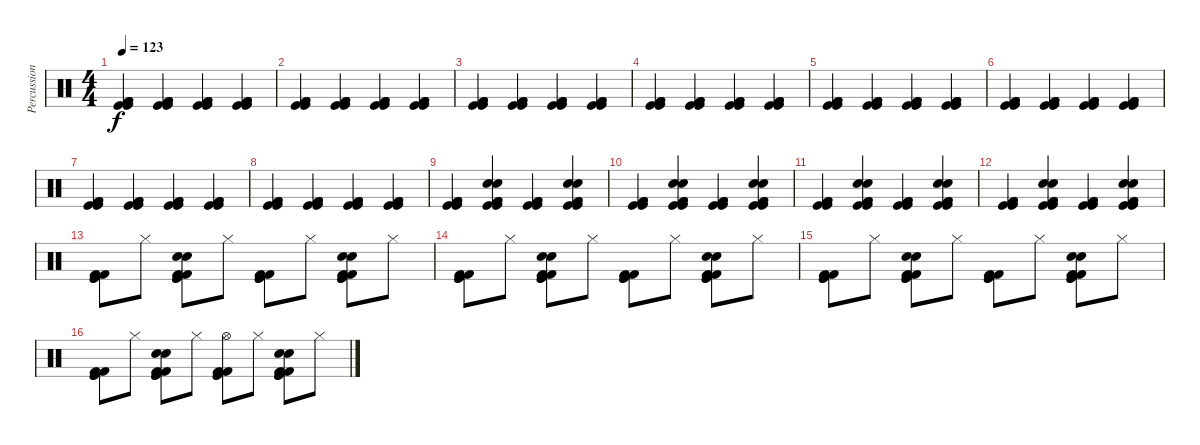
\track ("Percussion" "Percussion") {instrument percussion}
\staff {score}
\articulation defaults
\ts (4 4)
\tempo 123
\clef neutral
\ks c
("Kick (hit)" "Kick (hit)" "Kick (hit) 2" "Kick (hit) 2").4{dy f} ("Kick (hit)" "Kick (hit)" "Kick (hit) 2" "Kick (hit) 2").4 ("Kick (hit)" "Kick (hit)" "Kick (hit) 2" "Kick (hit) 2").4 ("Kick (hit)" "Kick (hit)" "Kick (hit) 2" "Kick (hit) 2").4 |
("Kick (hit)" "Kick (hit)" "Kick (hit) 2" "Kick (hit) 2").4 ("Kick (hit)" "Kick (hit)" "Kick (hit) 2" "Kick (hit) 2").4 ("Kick (hit)" "Kick (hit)" "Kick (hit) 2" "Kick (hit) 2").4 ("Kick (hit)" "Kick (hit)" "Kick (hit) 2" "Kick (hit) 2").4 |
("Kick (hit)" "Kick (hit)" "Kick (hit) 2" "Kick (hit) 2").4 ("Kick (hit)" "Kick (hit)" "Kick (hit) 2" "Kick (hit) 2").4 ("Kick (hit)" "Kick (hit)" "Kick (hit) 2" "Kick (hit) 2").4 ("Kick (hit)" "Kick (hit)" "Kick (hit) 2" "Kick (hit) 2").4 |
("Kick (hit)" "Kick (hit)" "Kick (hit) 2" "Kick (hit) 2").4 ("Kick (hit)" "Kick (hit)" "Kick (hit) 2" "Kick (hit) 2").4 ("Kick (hit)" "Kick (hit)" "Kick (hit) 2" "Kick (hit) 2").4 ("Kick (hit)" "Kick (hit)" "Kick (hit) 2" "Kick (hit) 2").4 |
("Kick (hit)" "Kick (hit)" "Kick (hit) 2" "Kick (hit) 2").4 ("Kick (hit)" "Kick (hit)" "Kick (hit) 2" "Kick (hit) 2").4 ("Kick (hit)" "Kick (hit)" "Kick (hit) 2" "Kick (hit) 2").4 ("Kick (hit)" "Kick (hit)" "Kick (hit) 2" "Kick (hit) 2").4 |
("Kick (hit)" "Kick (hit)" "Kick (hit) 2" "Kick (hit) 2").4 ("Kick (hit)" "Kick (hit)" "Kick (hit) 2" "Kick (hit) 2").4 ("Kick (hit)" "Kick (hit)" "Kick (hit) 2" "Kick (hit) 2").4 ("Kick (hit)" "Kick (hit)" "Kick (hit) 2" "Kick (hit) 2").4 |
("Kick (hit)" "Kick (hit)" "Kick (hit) 2" "Kick (hit) 2").4 ("Kick (hit)" "Kick (hit)" "Kick (hit) 2" "Kick (hit) 2").4 ("Kick (hit)" "Kick (hit)" "Kick (hit) 2" "Kick (hit) 2").4 ("Kick (hit)" "Kick (hit)" "Kick (hit) 2" "Kick (hit) 2").4 |
("Kick (hit)" "Kick (hit)" "Kick (hit) 2" "Kick (hit) 2").4 ("Kick (hit)" "Kick (hit)" "Kick (hit) 2" "Kick (hit) 2").4 ("Kick (hit)" "Kick (hit)" "Kick (hit) 2" "Kick (hit) 2").4 ("Kick (hit)" "Kick (hit)" "Kick (hit) 2" "Kick (hit) 2").4 |
("Kick (hit)" "Kick (hit)" "Kick (hit) 2" "Kick (hit) 2").4 ("Kick (hit)" "Kick (hit)" "Snare (hit) 2" "Snare (hit) 2" "Kick (hit) 2" "Kick (hit) 2").4 ("Kick (hit)" "Kick (hit)" "Kick (hit) 2" "Kick (hit) 2").4 ("Kick (hit)" "Kick (hit)" "Snare (hit) 2" "Snare (hit) 2" "Kick (hit) 2" "Kick (hit) 2").4 |
("Kick (hit)" "Kick (hit)" "Kick (hit) 2" "Kick (hit) 2").4 ("Kick (hit)" "Kick (hit)" "Snare (hit) 2" "Snare (hit) 2" "Kick (hit) 2" "Kick (hit) 2").4 ("Kick (hit)" "Kick (hit)" "Kick (hit) 2" "Kick (hit) 2").4 ("Kick (hit)" "Kick (hit)" "Snare (hit) 2" "Snare (hit) 2" "Kick (hit) 2" "Kick (hit) 2").4 |
("Kick (hit)" "Kick (hit)" "Kick (hit) 2" "Kick (hit) 2").4 ("Kick (hit)" "Kick (hit)" "Snare (hit) 2" "Snare (hit) 2" "Kick (hit) 2" "Kick (hit) 2").4 ("Kick (hit)" "Kick (hit)" "Kick (hit) 2" "Kick (hit) 2").4 ("Kick (hit)" "Kick (hit)" "Kick (hit) 2" "Snare (hit) 2" "Snare (hit) 2" "Kick (hit) 2").4 |
("Kick (hit)" "Kick (hit)" "Kick (hit) 2" "Kick (hit) 2").4 ("Kick (hit)" "Kick (hit)" "Snare (hit) 2" "Snare (hit) 2" "Kick (hit) 2" "Kick (hit) 2").4 ("Kick (hit)" "Kick (hit)" "Kick (hit) 2" "Kick (hit) 2").4 ("Kick (hit)" "Kick (hit)" "Snare (hit) 2" "Snare (hit) 2" "Kick (hit) 2" "Kick (hit) 2").4 |
("Kick (hit)" "Kick (hit)" "Kick (hit) 2" "Kick (hit) 2").8 "Hi-Hat (closed)".8 ("Kick (hit)" "Kick (hit)" "Snare (hit) 2" "Snare (hit) 2" "Kick (hit) 2" "Kick (hit) 2").8 "Hi-Hat (closed)".8 ("Kick (hit)" "Kick (hit)" "Kick (hit) 2" "Kick (hit) 2").8 "Hi-Hat (closed)".8 ("Kick (hit)" "Kick (hit)" "Snare (hit) 2" "Snare (hit) 2" "Kick (hit) 2" "Kick (hit) 2").8 "Hi-Hat (closed)".8 |
("Kick (hit)" "Kick (hit)" "Kick (hit) 2" "Kick (hit) 2").8 "Hi-Hat (closed)".8 ("Kick (hit)" "Kick (hit)" "Snare (hit) 2" "Snare (hit) 2" "Kick (hit) 2" "Kick (hit) 2").8 "Hi-Hat (closed)".8 ("Kick (hit)" "Kick (hit)" "Kick (hit) 2" "Kick (hit) 2").8 "Hi-Hat (closed)".8 ("Kick (hit)" "Kick (hit)" "Snare (hit) 2" "Snare (hit) 2" "Kick (hit) 2" "Kick (hit) 2").8 "Hi-Hat (closed)".8 |
("Kick (hit)" "Kick (hit)" "Kick (hit) 2" "Kick (hit) 2").8 "Hi-Hat (closed)".8 ("Kick (hit)" "Kick (hit)" "Snare (hit) 2" "Snare (hit) 2" "Kick (hit) 2" "Kick (hit) 2").8 "Hi-Hat (closed)".8 ("Kick (hit)" "Kick (hit)" "Kick (hit) 2" "Kick (hit) 2").8 "Hi-Hat (closed)".8 ("Kick (hit)" "Kick (hit)" "Kick (hit) 2" "Snare (hit) 2" "Snare (hit) 2" "Kick (hit) 2").8 "Hi-Hat (closed)".8 |
("Kick (hit)" "Kick (hit)" "Kick (hit) 2" "Kick (hit) 2").8 "Hi-Hat (closed)".8 ("Kick (hit)" "Kick (hit)" "Snare (hit) 2" "Snare (hit) 2" "Kick (hit) 2" "Kick (hit) 2").8 "Hi-Hat (closed)".8 ("Hi-Hat (open)" "Kick (hit)" "Kick (hit)" "Kick (hit) 2" "Kick (hit) 2").8 "Hi-Hat (closed)".8 ("Kick (hit)" "Kick (hit)" "Snare (hit) 2" "Snare (hit) 2" "Kick (hit) 2" "Kick (hit) 2").8 "Hi-Hat (closed)".8
